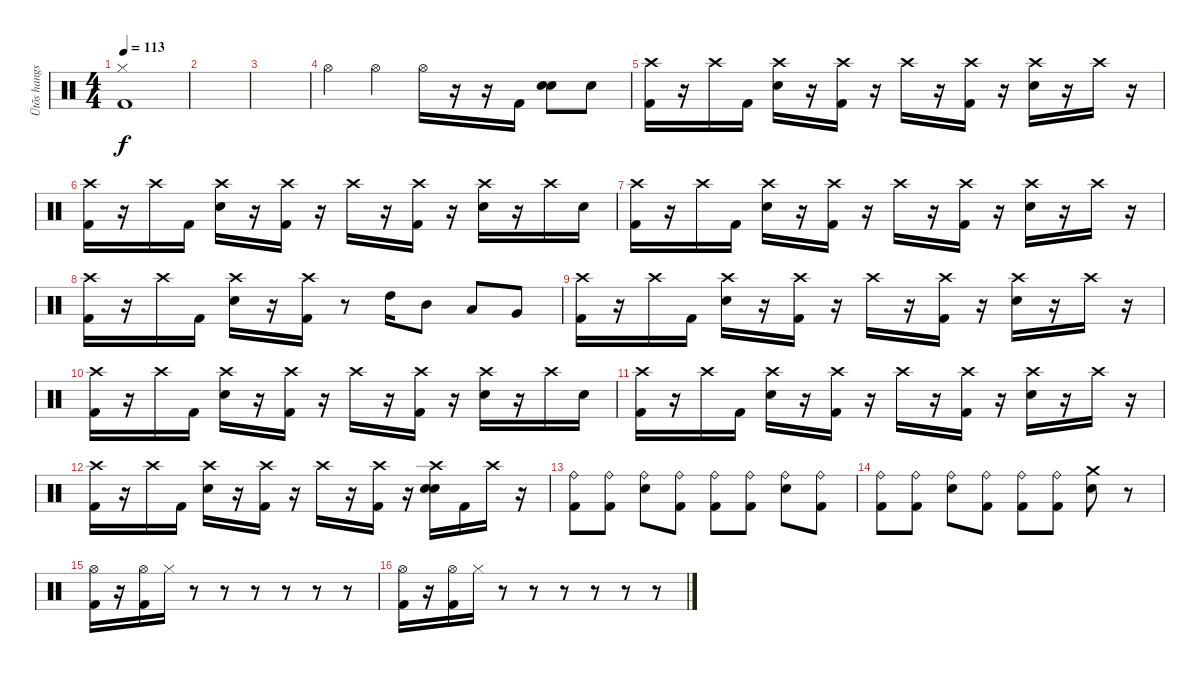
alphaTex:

\track ("Ütõs hangszer" "Ütõs hangs") {instrument percussion}
\staff {score}
\articulation defaults
\ts (4 4)
\tempo 113
\clef neutral
\ks c
("Hi-Hat (closed)" "Kick (hit) 2").1{dy f} |
|
|
"Hi-Hat (open)".4 "Hi-Hat (open)".4 "Hi-Hat (open)".16 r.16 r.16 "Kick (hit) 2".16 ("Electric Snare (hit)" "Electric Snare (hit)").8 "Electric Snare (hit)".8 |
("Crash high (hit)" "Kick (hit) 2").16 r.16 "Crash high (hit)".16 "Kick (hit) 2".16 ("Crash high (hit)" "Electric Snare (hit)").16 r.16 ("Crash high (hit)" "Kick (hit) 2").16 r.16 "Crash high (hit)".16 r.16 ("Crash high (hit)" "Kick (hit) 2").16 r.16 ("Crash high (hit)" "Electric Snare (hit)").16 r.16 "Crash high (hit)".16 r.16 |
("Crash high (hit)" "Kick (hit) 2").16 r.16 "Crash high (hit)".16 "Kick (hit) 2".16 ("Crash high (hit)" "Electric Snare (hit)").16 r.16 ("Crash high (hit)" "Kick (hit) 2").16 r.16 "Crash high (hit)".16 r.16 ("Crash high (hit)" "Kick (hit) 2").16 r.16 ("Crash high (hit)" "Electric Snare (hit)").16 r.16 "Crash high (hit)".16 "Electric Snare (hit)".16 |
("Crash high (hit)" "Kick (hit) 2").16 r.16 "Crash high (hit)".16 "Kick (hit) 2".16 ("Crash high (hit)" "Electric Snare (hit)").16 r.16 ("Crash high (hit)" "Kick (hit) 2").16 r.16 "Crash high (hit)".16 r.16 ("Crash high (hit)" "Kick (hit) 2").16 r.16 ("Crash high (hit)" "Electric Snare (hit)").16 r.16 "Crash high (hit)".16 r.16 |
("Crash high (hit)" "Kick (hit) 2").16 r.16 "Crash high (hit)".16 "Kick (hit) 2".16 ("Crash high (hit)" "Electric Snare (hit)").16 r.16 ("Crash high (hit)" "Kick (hit) 2").16 r.8 "High Tom (hit)".16 "Mid Tom (hit)".8 "Low Tom (hit)".8 "Very Low Tom (hit)".8 |
("Crash high (hit)" "Kick (hit) 2").16 r.16 "Crash high (hit)".16 "Kick (hit) 2".16 ("Crash high (hit)" "Electric Snare (hit)").16 r.16 ("Crash high (hit)" "Kick (hit) 2").16 r.16 "Crash high (hit)".16 r.16 ("Crash high (hit)" "Kick (hit) 2").16 r.16 ("Crash high (hit)" "Electric Snare (hit)").16 r.16 "Crash high (hit)".16 r.16 |
("Crash high (hit)" "Kick (hit) 2").16 r.16 "Crash high (hit)".16 "Kick (hit) 2".16 ("Crash high (hit)" "Electric Snare (hit)").16 r.16 ("Crash high (hit)" "Kick (hit) 2").16 r.16 "Crash high (hit)".16 r.16 ("Crash high (hit)" "Kick (hit) 2").16 r.16 ("Crash high (hit)" "Electric Snare (hit)").16 r.16 "Crash high (hit)".16 "Electric Snare (hit)".16 |
("Crash high (hit)" "Kick (hit) 2").16 r.16 "Crash high (hit)".16 "Kick (hit) 2".16 ("Crash high (hit)" "Electric Snare (hit)").16 r.16 ("Crash high (hit)" "Kick (hit) 2").16 r.16 "Crash high (hit)".16 r.16 ("Crash high (hit)" "Kick (hit) 2").16 r.16 ("Crash high (hit)" "Electric Snare (hit)").16 r.16 "Crash high (hit)".16 r.16 |
("Crash high (hit)" "Kick (hit) 2").16 r.16 "Crash high (hit)".16 "Kick (hit) 2".16 ("Crash high (hit)" "Electric Snare (hit)").16 r.16 ("Crash high (hit)" "Kick (hit) 2").16 r.16 "Crash high (hit)".16 r.16 ("Crash high (hit)" "Kick (hit) 2").16 r.16 ("Crash high (hit)" "Electric Snare (hit)" "Electric Snare (hit)").16 "Kick (hit) 2".16 "Crash high (hit)".16 r.16 |
("Ride (bell)" "Kick (hit) 2").8 ("Ride (bell)" "Kick (hit) 2").8 ("Ride (bell)" "Electric Snare (hit)").8 ("Ride (bell)" "Kick (hit) 2").8 ("Ride (bell)" "Kick (hit) 2").8 ("Ride (bell)" "Kick (hit) 2").8 ("Ride (bell)" "Electric Snare (hit)").8 ("Ride (bell)" "Kick (hit) 2").8 |
("Ride (bell)" "Kick (hit) 2").8 ("Ride (bell)" "Kick (hit) 2").8 ("Ride (bell)" "Electric Snare (hit)").8 ("Ride (bell)" "Kick (hit) 2").8 ("Ride (bell)" "Kick (hit) 2").8 ("Ride (bell)" "Kick (hit) 2").8 ("Crash medium (hit)" "Electric Snare (hit)").8 r.8 |
("Hi-Hat (open)" "Kick (hit) 2").16 r.16 ("Hi-Hat (open)" "Kick (hit) 2").16 "Hi-Hat (closed)".16 r.8 r.8 r.8 r.8 r.8 r.8 |
("Hi-Hat (open)" "Kick (hit) 2").16 r.16 ("Hi-Hat (open)" "Kick (hit) 2").16 "Hi-Hat (closed)".16 r.8 r.8 r.8 r.8 r.8 r.8
